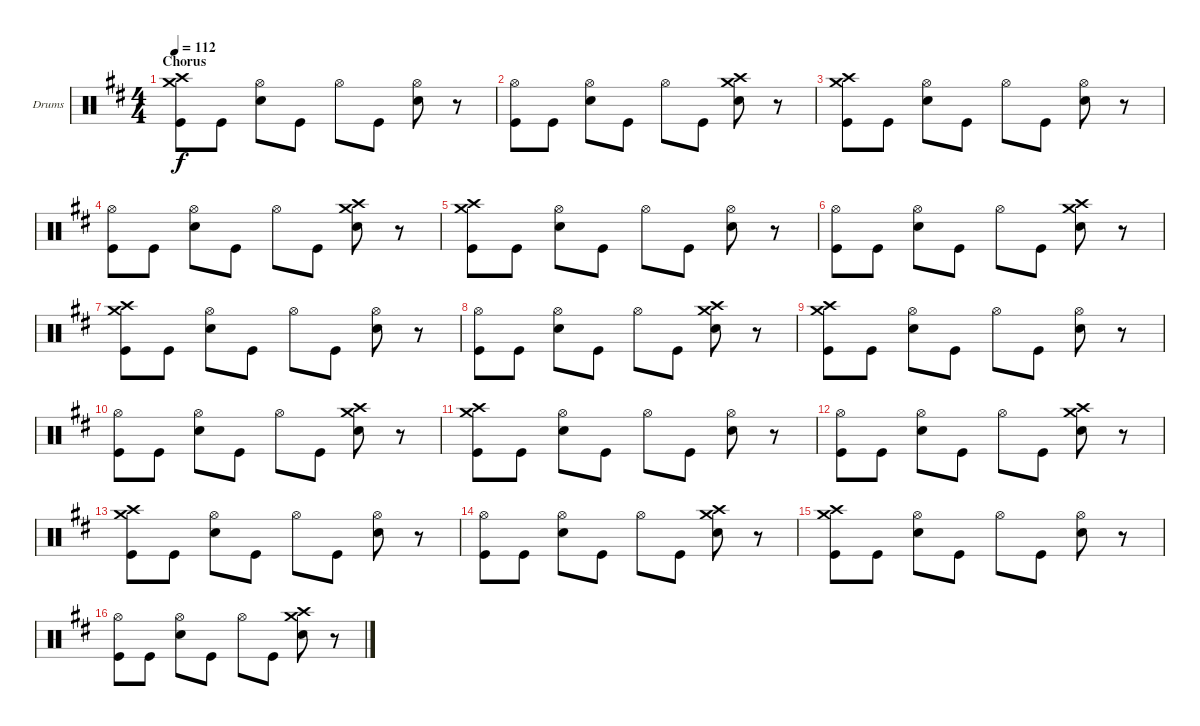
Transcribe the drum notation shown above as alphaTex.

\defaultSystemsLayout 4
\bracketExtendMode groupsimilarinstruments
\firstSystemTrackNameOrientation horizontal
\otherSystemsTrackNameOrientation horizontal
\track ("Drumkit" "Drums") {instrument percussion}
\staff {score}
\articulation defaults
\ts (4 4)
\section ("" "Chorus")
\tempo 112
\clef neutral
\scale
1.05044
\ks d
("Crash medium (hit)" "Crash high (hit)" "Kick (hit)").8{dy f} "Kick (hit)".8 ("Hi-Hat (open)" "Snare (hit) 2").8 "Kick (hit)".8 "Hi-Hat (open)".8 "Kick (hit)".8 ("Hi-Hat (open)" "Snare (hit) 2").8 r.8 |
\scale
0.949559 ("Hi-Hat (open)" "Kick (hit)").8 "Kick (hit)".8 ("Hi-Hat (open)" "Snare (hit) 2").8 "Kick (hit)".8 "Hi-Hat (open)".8 "Kick (hit)".8 ("Crash medium (hit)" "Crash high (hit)" "Snare (hit) 2").8 r.8 |
\scale
1.05044 ("Crash medium (hit)" "Crash high (hit)" "Kick (hit)").8 "Kick (hit)".8 ("Hi-Hat (open)" "Snare (hit) 2").8 "Kick (hit)".8 "Hi-Hat (open)".8 "Kick (hit)".8 ("Hi-Hat (open)" "Snare (hit) 2").8 r.8 |
\scale
0.949559 ("Hi-Hat (open)" "Kick (hit)").8 "Kick (hit)".8 ("Hi-Hat (open)" "Snare (hit) 2").8 "Kick (hit)".8 "Hi-Hat (open)".8 "Kick (hit)".8 ("Crash medium (hit)" "Crash high (hit)" "Snare (hit) 2").8 r.8 |
\scale
1.05044 ("Crash medium (hit)" "Crash high (hit)" "Kick (hit)").8 "Kick (hit)".8 ("Hi-Hat (open)" "Snare (hit) 2").8 "Kick (hit)".8 "Hi-Hat (open)".8 "Kick (hit)".8 ("Hi-Hat (open)" "Snare (hit) 2").8 r.8 |
\scale
0.949559 ("Hi-Hat (open)" "Kick (hit)").8 "Kick (hit)".8 ("Hi-Hat (open)" "Snare (hit) 2").8 "Kick (hit)".8 "Hi-Hat (open)".8 "Kick (hit)".8 ("Crash medium (hit)" "Crash high (hit)" "Snare (hit) 2").8 r.8 |
\scale
1.05044 ("Crash medium (hit)" "Crash high (hit)" "Kick (hit)").8 "Kick (hit)".8 ("Hi-Hat (open)" "Snare (hit) 2").8 "Kick (hit)".8 "Hi-Hat (open)".8 "Kick (hit)".8 ("Hi-Hat (open)" "Snare (hit) 2").8 r.8 |
\scale
0.949559 ("Hi-Hat (open)" "Kick (hit)").8 "Kick (hit)".8 ("Hi-Hat (open)" "Snare (hit) 2").8 "Kick (hit)".8 "Hi-Hat (open)".8 "Kick (hit)".8 ("Crash medium (hit)" "Crash high (hit)" "Snare (hit) 2").8 r.8 |
\scale
1.05044 ("Crash medium (hit)" "Crash high (hit)" "Kick (hit)").8 "Kick (hit)".8 ("Hi-Hat (open)" "Snare (hit) 2").8 "Kick (hit)".8 "Hi-Hat (open)".8 "Kick (hit)".8 ("Hi-Hat (open)" "Snare (hit) 2").8 r.8 |
\scale
0.949559 ("Hi-Hat (open)" "Kick (hit)").8 "Kick (hit)".8 ("Hi-Hat (open)" "Snare (hit) 2").8 "Kick (hit)".8 "Hi-Hat (open)".8 "Kick (hit)".8 ("Crash medium (hit)" "Crash high (hit)" "Snare (hit) 2").8 r.8 |
\scale
1.05044 ("Crash medium (hit)" "Crash high (hit)" "Kick (hit)").8 "Kick (hit)".8 ("Hi-Hat (open)" "Snare (hit) 2").8 "Kick (hit)".8 "Hi-Hat (open)".8 "Kick (hit)".8 ("Hi-Hat (open)" "Snare (hit) 2").8 r.8 |
\scale
0.949559 ("Hi-Hat (open)" "Kick (hit)").8 "Kick (hit)".8 ("Hi-Hat (open)" "Snare (hit) 2").8 "Kick (hit)".8 "Hi-Hat (open)".8 "Kick (hit)".8 ("Crash medium (hit)" "Crash high (hit)" "Snare (hit) 2").8 r.8 |
\scale
1.05044 ("Crash medium (hit)" "Crash high (hit)" "Kick (hit)").8 "Kick (hit)".8 ("Hi-Hat (open)" "Snare (hit) 2").8 "Kick (hit)".8 "Hi-Hat (open)".8 "Kick (hit)".8 ("Hi-Hat (open)" "Snare (hit) 2").8 r.8 |
\scale
0.949559 ("Hi-Hat (open)" "Kick (hit)").8 "Kick (hit)".8 ("Hi-Hat (open)" "Snare (hit) 2").8 "Kick (hit)".8 "Hi-Hat (open)".8 "Kick (hit)".8 ("Crash medium (hit)" "Crash high (hit)" "Snare (hit) 2").8 r.8 |
\scale
1.05044 ("Crash medium (hit)" "Crash high (hit)" "Kick (hit)").8 "Kick (hit)".8 ("Hi-Hat (open)" "Snare (hit) 2").8 "Kick (hit)".8 "Hi-Hat (open)".8 "Kick (hit)".8 ("Hi-Hat (open)" "Snare (hit) 2").8 r.8 |
\scale
0.949559 ("Hi-Hat (open)" "Kick (hit)").8 "Kick (hit)".8 ("Hi-Hat (open)" "Snare (hit) 2").8 "Kick (hit)".8 "Hi-Hat (open)".8 "Kick (hit)".8 ("Crash medium (hit)" "Crash high (hit)" "Snare (hit) 2").8 r.8
